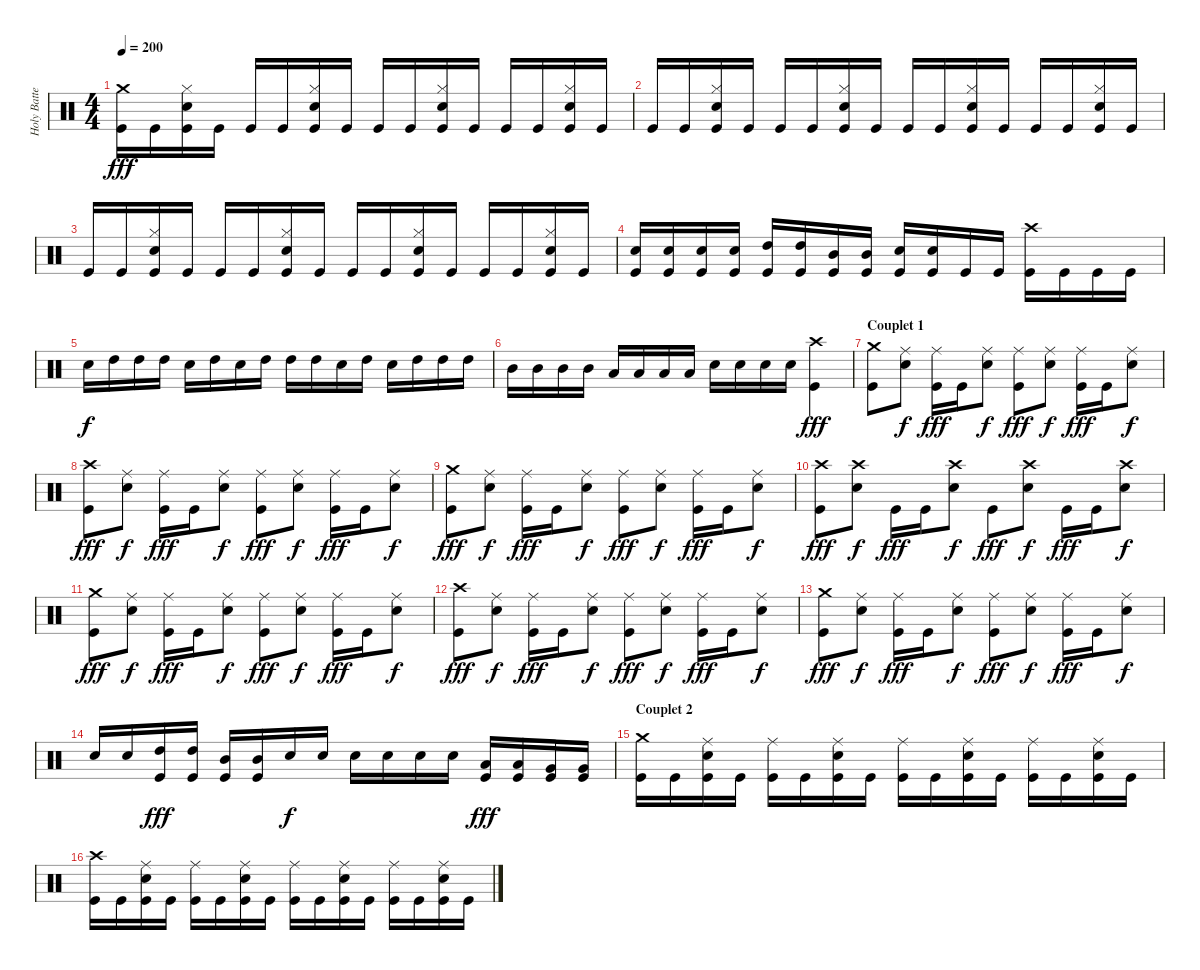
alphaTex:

\track ("Holy Batteur" "Holy Batte") {instrument percussion}
\staff {score}
\articulation defaults
\ts (4 4)
\tempo 200
\clef neutral
\ks c
("Crash medium (hit)" "Kick (hit)").16{dy fff} "Kick (hit)".16 ("Hi-Hat (closed)" "Electric Snare (hit)" "Kick (hit)").16 "Kick (hit)".16 "Kick (hit)".16 "Kick (hit)".16 ("Hi-Hat (closed)" "Electric Snare (hit)" "Kick (hit)").16 "Kick (hit)".16 "Kick (hit)".16 "Kick (hit)".16 ("Hi-Hat (closed)" "Electric Snare (hit)" "Kick (hit)").16 "Kick (hit)".16 "Kick (hit)".16 "Kick (hit)".16 ("Hi-Hat (closed)" "Electric Snare (hit)" "Kick (hit)").16 "Kick (hit)".16 |
"Kick (hit)".16 "Kick (hit)".16 ("Hi-Hat (closed)" "Electric Snare (hit)" "Kick (hit)").16 "Kick (hit)".16 "Kick (hit)".16 "Kick (hit)".16 ("Hi-Hat (closed)" "Electric Snare (hit)" "Kick (hit)").16 "Kick (hit)".16 "Kick (hit)".16 "Kick (hit)".16 ("Hi-Hat (closed)" "Electric Snare (hit)" "Kick (hit)").16 "Kick (hit)".16 "Kick (hit)".16 "Kick (hit)".16 ("Hi-Hat (closed)" "Electric Snare (hit)" "Kick (hit)").16 "Kick (hit)".16 |
"Kick (hit)".16 "Kick (hit)".16 ("Hi-Hat (closed)" "Electric Snare (hit)" "Kick (hit)").16 "Kick (hit)".16 "Kick (hit)".16 "Kick (hit)".16 ("Hi-Hat (closed)" "Electric Snare (hit)" "Kick (hit)").16 "Kick (hit)".16 "Kick (hit)".16 "Kick (hit)".16 ("Hi-Hat (closed)" "Electric Snare (hit)" "Kick (hit)").16 "Kick (hit)".16 "Kick (hit)".16 "Kick (hit)".16 ("Hi-Hat (closed)" "Electric Snare (hit)" "Kick (hit)").16 "Kick (hit)".16 |
("Electric Snare (hit)" "Kick (hit)").16 ("Electric Snare (hit)" "Kick (hit)").16 ("Electric Snare (hit)" "Kick (hit)").16 ("Electric Snare (hit)" "Kick (hit)").16 ("High Tom (hit)" "Kick (hit)").16 ("High Tom (hit)" "Kick (hit)").16 ("Mid Tom (hit)" "Kick (hit)").16 ("Mid Tom (hit)" "Kick (hit)").16 ("Electric Snare (hit)" "Kick (hit)").16 ("Electric Snare (hit)" "Kick (hit)").16 "Kick (hit)".16 "Kick (hit)".16 ("Crash high (hit)" "Kick (hit)").16 "Kick (hit)".16 "Kick (hit)".16 "Kick (hit)".16 |
"Electric Snare (hit)".16{dy f} "High Tom (hit)".16 "High Tom (hit)".16 "High Tom (hit)".16 "Electric Snare (hit)".16 "High Tom (hit)".16 "Electric Snare (hit)".16 "High Tom (hit)".16 "High Tom (hit)".16 "High Tom (hit)".16 "Electric Snare (hit)".16 "High Tom (hit)".16 "Electric Snare (hit)".16 "High Tom (hit)".16 "High Tom (hit)".16 "High Tom (hit)".16 |
"Mid Tom (hit)".16 "Mid Tom (hit)".16 "Mid Tom (hit)".16 "Mid Tom (hit)".16 "Low Tom (hit)".16 "Low Tom (hit)".16 "Low Tom (hit)".16 "Low Tom (hit)".16 "Electric Snare (hit)".16 "Electric Snare (hit)".16 "Electric Snare (hit)".16 "Electric Snare (hit)".16 ("Crash high (hit)" "Kick (hit)").4{dy fff} |
\section ("" "Couplet 1")
("Crash medium (hit)" "Kick (hit)").8 ("Ride (middle)" "Electric Snare (hit)").8{dy f} ("Ride (middle)" "Kick (hit)").16{dy fff} "Kick (hit)".16 ("Ride (middle)" "Electric Snare (hit)").8{dy f} ("Ride (middle)" "Kick (hit)").8{dy fff} ("Ride (middle)" "Electric Snare (hit)").8{dy f} ("Ride (middle)" "Kick (hit)").16{dy fff} "Kick (hit)".16 ("Ride (middle)" "Electric Snare (hit)").8{dy f} |
("Crash high (hit)" "Kick (hit)").8{dy fff} ("Ride (middle)" "Electric Snare (hit)").8{dy f} ("Ride (middle)" "Kick (hit)").16{dy fff} "Kick (hit)".16 ("Ride (middle)" "Electric Snare (hit)").8{dy f} ("Ride (middle)" "Kick (hit)").8{dy fff} ("Ride (middle)" "Electric Snare (hit)").8{dy f} ("Ride (middle)" "Kick (hit)").16{dy fff} "Kick (hit)".16 ("Ride (middle)" "Electric Snare (hit)").8{dy f} |
("Crash medium (hit)" "Kick (hit)").8{dy fff} ("Ride (middle)" "Electric Snare (hit)").8{dy f} ("Ride (middle)" "Kick (hit)").16{dy fff} "Kick (hit)".16 ("Ride (middle)" "Electric Snare (hit)").8{dy f} ("Ride (middle)" "Kick (hit)").8{dy fff} ("Ride (middle)" "Electric Snare (hit)").8{dy f} ("Ride (middle)" "Kick (hit)").16{dy fff} "Kick (hit)".16 ("Ride (middle)" "Electric Snare (hit)").8{dy f} |
("Crash high (hit)" "Kick (hit)").8{dy fff} ("Crash high (hit)" "Electric Snare (hit)").8{dy f} "Kick (hit)".16{dy fff} "Kick (hit)".16 ("Crash high (hit)" "Electric Snare (hit)").8{dy f} "Kick (hit)".8{dy fff} ("Crash high (hit)" "Electric Snare (hit)").8{dy f} "Kick (hit)".16{dy fff} "Kick (hit)".16 ("Crash high (hit)" "Electric Snare (hit)").8{dy f} |
("Crash medium (hit)" "Kick (hit)").8{dy fff} ("Ride (middle)" "Electric Snare (hit)").8{dy f} ("Ride (middle)" "Kick (hit)").16{dy fff} "Kick (hit)".16 ("Ride (middle)" "Electric Snare (hit)").8{dy f} ("Ride (middle)" "Kick (hit)").8{dy fff} ("Ride (middle)" "Electric Snare (hit)").8{dy f} ("Ride (middle)" "Kick (hit)").16{dy fff} "Kick (hit)".16 ("Ride (middle)" "Electric Snare (hit)").8{dy f} |
("Crash high (hit)" "Kick (hit)").8{dy fff} ("Ride (middle)" "Electric Snare (hit)").8{dy f} ("Ride (middle)" "Kick (hit)").16{dy fff} "Kick (hit)".16 ("Ride (middle)" "Electric Snare (hit)").8{dy f} ("Ride (middle)" "Kick (hit)").8{dy fff} ("Ride (middle)" "Electric Snare (hit)").8{dy f} ("Ride (middle)" "Kick (hit)").16{dy fff} "Kick (hit)".16 ("Ride (middle)" "Electric Snare (hit)").8{dy f} |
("Crash medium (hit)" "Kick (hit)").8{dy fff} ("Ride (middle)" "Electric Snare (hit)").8{dy f} ("Ride (middle)" "Kick (hit)").16{dy fff} "Kick (hit)".16 ("Ride (middle)" "Electric Snare (hit)").8{dy f} ("Ride (middle)" "Kick (hit)").8{dy fff} ("Ride (middle)" "Electric Snare (hit)").8{dy f} ("Ride (middle)" "Kick (hit)").16{dy fff} "Kick (hit)".16 ("Ride (middle)" "Electric Snare (hit)").8{dy f} |
"Electric Snare (hit)".16 "Electric Snare (hit)".16 ("High Tom (hit)" "Kick (hit)").16{dy fff} ("High Tom (hit)" "Kick (hit)").16 ("Mid Tom (hit)" "Kick (hit)").16 ("Mid Tom (hit)" "Kick (hit)").16 "Electric Snare (hit)".16{dy f} "Electric Snare (hit)".16 "Electric Snare (hit)".16 "Electric Snare (hit)".16 "Electric Snare (hit)".16 "Electric Snare (hit)".16 ("Low Tom (hit)" "Kick (hit)").16{dy fff} ("Low Tom (hit)" "Kick (hit)").16 ("Very Low Tom (hit)" "Kick (hit)").16 ("Very Low Tom (hit)" "Kick (hit)").16 |
\section ("" "Couplet 2")
("Crash medium (hit)" "Kick (hit)").16 "Kick (hit)".16 ("Ride (middle)" "Electric Snare (hit)" "Kick (hit)").16 "Kick (hit)".16 ("Ride (middle)" "Kick (hit)").16 "Kick (hit)".16 ("Ride (middle)" "Electric Snare (hit)" "Kick (hit)").16 "Kick (hit)".16 ("Ride (middle)" "Kick (hit)").16 "Kick (hit)".16 ("Ride (middle)" "Electric Snare (hit)" "Kick (hit)").16 "Kick (hit)".16 ("Ride (middle)" "Kick (hit)").16 "Kick (hit)".16 ("Ride (middle)" "Electric Snare (hit)" "Kick (hit)").16 "Kick (hit)".16 |
("Crash high (hit)" "Kick (hit)").16 "Kick (hit)".16 ("Ride (middle)" "Electric Snare (hit)" "Kick (hit)").16 "Kick (hit)".16 ("Ride (middle)" "Kick (hit)").16 "Kick (hit)".16 ("Ride (middle)" "Electric Snare (hit)" "Kick (hit)").16 "Kick (hit)".16 ("Ride (middle)" "Kick (hit)").16 "Kick (hit)".16 ("Ride (middle)" "Electric Snare (hit)" "Kick (hit)").16 "Kick (hit)".16 ("Ride (middle)" "Kick (hit)").16 "Kick (hit)".16 ("Ride (middle)" "Electric Snare (hit)" "Kick (hit)").16 "Kick (hit)".16
